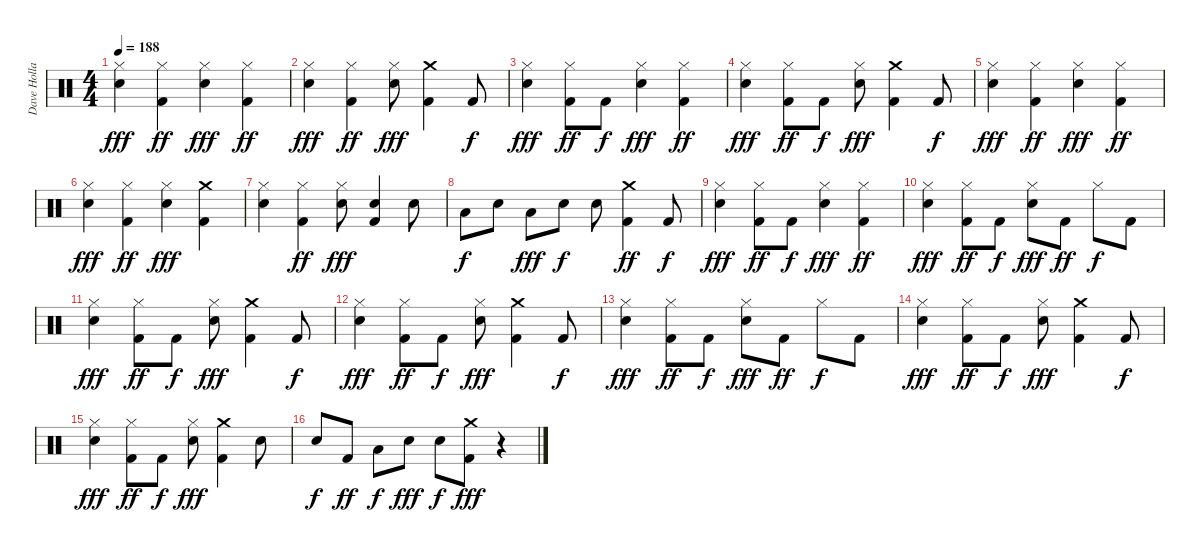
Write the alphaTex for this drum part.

\track ("Dave Holland" "Dave Holla") {instrument percussion}
\staff {score}
\articulation defaults
\ts (4 4)
\tempo 188
\clef neutral
\ks c
("Snare (hit) 2" "Hi-Hat (closed)").4{dy fff} ("Kick (hit) 2" "Hi-Hat (closed)").4{dy ff} ("Snare (hit) 2" "Hi-Hat (closed)").4{dy fff} ("Kick (hit) 2" "Hi-Hat (closed)").4{dy ff} |
("Snare (hit) 2" "Hi-Hat (closed)").4{dy fff} ("Kick (hit) 2" "Hi-Hat (closed)").4{dy ff} ("Snare (hit) 2" "Hi-Hat (closed)").8{dy fff} ("Kick (hit) 2" "Crash medium (hit)").4 "Kick (hit) 2".8{dy f} |
("Snare (hit) 2" "Hi-Hat (closed)").4{dy fff} ("Kick (hit) 2" "Hi-Hat (closed)").8{dy ff} "Kick (hit) 2".8{dy f} ("Snare (hit) 2" "Hi-Hat (closed)").4{dy fff} ("Kick (hit) 2" "Hi-Hat (closed)").4{dy ff} |
("Snare (hit) 2" "Hi-Hat (closed)").4{dy fff} ("Kick (hit) 2" "Hi-Hat (closed)").8{dy ff} "Kick (hit) 2".8{dy f} ("Snare (hit) 2" "Hi-Hat (closed)").8{dy fff} ("Kick (hit) 2" "Crash medium (hit)").4 "Kick (hit) 2".8{dy f} |
("Snare (hit) 2" "Hi-Hat (closed)").4{dy fff} ("Kick (hit) 2" "Hi-Hat (closed)").4{dy ff} ("Snare (hit) 2" "Hi-Hat (closed)").4{dy fff} ("Kick (hit) 2" "Hi-Hat (closed)").4{dy ff} |
("Snare (hit) 2" "Hi-Hat (closed)").4{dy fff} ("Kick (hit) 2" "Hi-Hat (closed)").4{dy ff} ("Snare (hit) 2" "Hi-Hat (closed)").4{dy fff} ("Kick (hit) 2" "Crash medium (hit)").4 |
("Snare (hit) 2" "Hi-Hat (closed)").4 ("Kick (hit) 2" "Hi-Hat (closed)").4{dy ff} ("Snare (hit) 2" "Hi-Hat (closed)").8{dy fff} ("Kick (hit) 2" "Snare (hit) 2").4 "Snare (hit) 2".8 |
"Low Tom (hit)".8{dy f} "Snare (hit) 2".8 "Low Tom (hit)".8{dy fff} "Snare (hit) 2".8{dy f} "Snare (hit) 2".8 ("Crash medium (hit)" "Kick (hit) 2").4{dy ff} "Kick (hit) 2".8{dy f} |
("Snare (hit) 2" "Hi-Hat (closed)").4{dy fff} ("Kick (hit) 2" "Hi-Hat (closed)").8{dy ff} "Kick (hit) 2".8{dy f} ("Snare (hit) 2" "Hi-Hat (closed)").4{dy fff} ("Kick (hit) 2" "Hi-Hat (closed)").4{dy ff} |
("Snare (hit) 2" "Hi-Hat (closed)").4{dy fff} ("Kick (hit) 2" "Hi-Hat (closed)").8{dy ff} "Kick (hit) 2".8{dy f} ("Snare (hit) 2" "Hi-Hat (closed)").8{dy fff} "Kick (hit) 2".8{dy ff} "Hi-Hat (closed)".8{dy f} "Kick (hit) 2".8 |
("Snare (hit) 2" "Hi-Hat (closed)").4{dy fff} ("Kick (hit) 2" "Hi-Hat (closed)").8{dy ff} "Kick (hit) 2".8{dy f} ("Snare (hit) 2" "Hi-Hat (closed)").8{dy fff} ("Kick (hit) 2" "Crash medium (hit)").4 "Kick (hit) 2".8{dy f} |
("Snare (hit) 2" "Hi-Hat (closed)").4{dy fff} ("Kick (hit) 2" "Hi-Hat (closed)").8{dy ff} "Kick (hit) 2".8{dy f} ("Snare (hit) 2" "Hi-Hat (closed)").8{dy fff} ("Kick (hit) 2" "Crash medium (hit)").4 "Kick (hit) 2".8{dy f} |
("Snare (hit) 2" "Hi-Hat (closed)").4{dy fff} ("Kick (hit) 2" "Hi-Hat (closed)").8{dy ff} "Kick (hit) 2".8{dy f} ("Snare (hit) 2" "Hi-Hat (closed)").8{dy fff} "Kick (hit) 2".8{dy ff} "Hi-Hat (closed)".8{dy f} "Kick (hit) 2".8 |
("Snare (hit) 2" "Hi-Hat (closed)").4{dy fff} ("Kick (hit) 2" "Hi-Hat (closed)").8{dy ff} "Kick (hit) 2".8{dy f} ("Snare (hit) 2" "Hi-Hat (closed)").8{dy fff} ("Kick (hit) 2" "Crash medium (hit)").4 "Kick (hit) 2".8{dy f} |
("Snare (hit) 2" "Hi-Hat (closed)").4{dy fff} ("Kick (hit) 2" "Hi-Hat (closed)").8{dy ff} "Kick (hit) 2".8{dy f} ("Snare (hit) 2" "Hi-Hat (closed)").8{dy fff} ("Kick (hit) 2" "Crash medium (hit)").4 "Snare (hit) 2".8 |
"Snare (hit) 2".8{dy f} "Kick (hit) 2".8{dy ff} "Low Tom (hit)".8{dy f} "Snare (hit) 2".8{dy fff} "Snare (hit) 2".8{dy f} ("Kick (hit) 2" "Crash medium (hit)").8{dy fff} r.4
